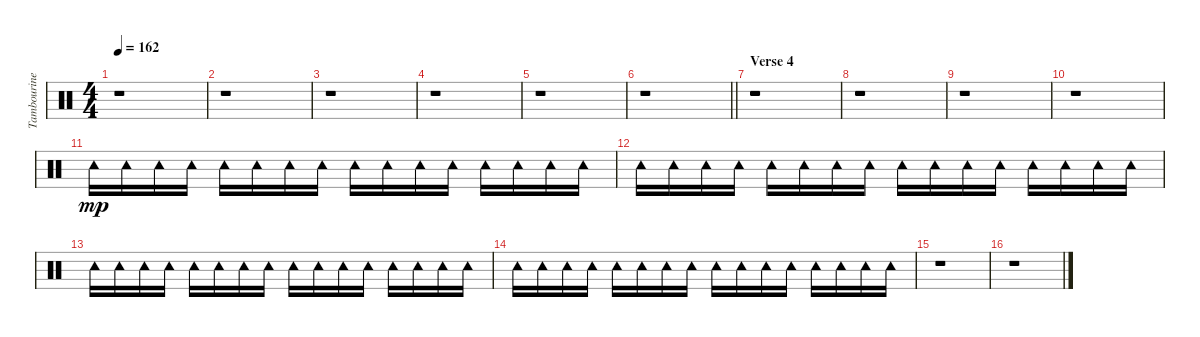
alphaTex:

\track ("Tambourine" "Tambourine") {instrument percussion}
\staff {score}
\articulation defaults
\ts (4 4)
\tempo 162
\clef neutral
\ks c
r.1{dy f} |
r.1 |
r.1 |
r.1 |
r.1 |
\barLineRight lightlight
r.1 |
\section ("" "Verse 4")
r.1 |
r.1 |
r.1 |
r.1 |
"Tambourine (hit)".16{dy mp} "Tambourine (hit)".16 "Tambourine (hit)".16 "Tambourine (hit)".16 "Tambourine (hit)".16 "Tambourine (hit)".16 "Tambourine (hit)".16 "Tambourine (hit)".16 "Tambourine (hit)".16 "Tambourine (hit)".16 "Tambourine (hit)".16 "Tambourine (hit)".16 "Tambourine (hit)".16 "Tambourine (hit)".16 "Tambourine (hit)".16 "Tambourine (hit)".16 |
"Tambourine (hit)".16 "Tambourine (hit)".16 "Tambourine (hit)".16 "Tambourine (hit)".16 "Tambourine (hit)".16 "Tambourine (hit)".16 "Tambourine (hit)".16 "Tambourine (hit)".16 "Tambourine (hit)".16 "Tambourine (hit)".16 "Tambourine (hit)".16 "Tambourine (hit)".16 "Tambourine (hit)".16 "Tambourine (hit)".16 "Tambourine (hit)".16 "Tambourine (hit)".16 |
"Tambourine (hit)".16 "Tambourine (hit)".16 "Tambourine (hit)".16 "Tambourine (hit)".16 "Tambourine (hit)".16 "Tambourine (hit)".16 "Tambourine (hit)".16 "Tambourine (hit)".16 "Tambourine (hit)".16 "Tambourine (hit)".16 "Tambourine (hit)".16 "Tambourine (hit)".16 "Tambourine (hit)".16 "Tambourine (hit)".16 "Tambourine (hit)".16 "Tambourine (hit)".16 |
"Tambourine (hit)".16 "Tambourine (hit)".16 "Tambourine (hit)".16 "Tambourine (hit)".16 "Tambourine (hit)".16 "Tambourine (hit)".16 "Tambourine (hit)".16 "Tambourine (hit)".16 "Tambourine (hit)".16 "Tambourine (hit)".16 "Tambourine (hit)".16 "Tambourine (hit)".16 "Tambourine (hit)".16 "Tambourine (hit)".16 "Tambourine (hit)".16 "Tambourine (hit)".16 |
r.1 |
r.1
